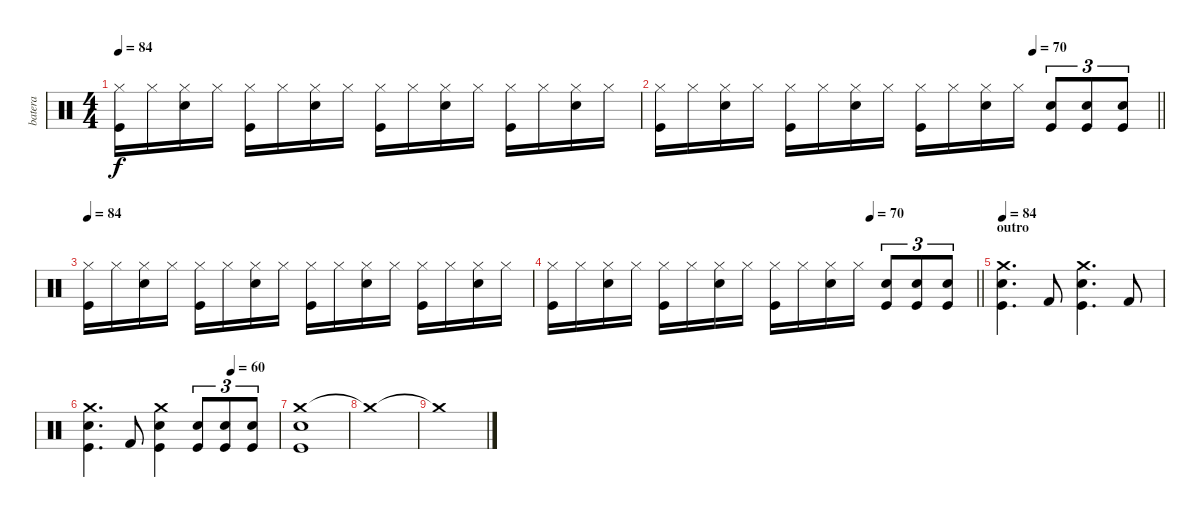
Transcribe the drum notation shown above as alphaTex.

\track ("batera" "batera") {solo instrument percussion}
\staff {score}
\articulation defaults
\ts (4 4)
\tempo 84
\clef neutral
\ks c
("Hi-Hat (closed)" "Kick (hit)").16{dy f} "Hi-Hat (closed)".16 ("Hi-Hat (closed)" "Snare (hit) 2").16 "Hi-Hat (closed)".16 ("Hi-Hat (closed)" "Kick (hit)").16 "Hi-Hat (closed)".16 ("Hi-Hat (closed)" "Snare (hit) 2").16 "Hi-Hat (closed)".16 ("Hi-Hat (closed)" "Kick (hit)").16 "Hi-Hat (closed)".16 ("Hi-Hat (closed)" "Snare (hit) 2").16 "Hi-Hat (closed)".16 ("Hi-Hat (closed)" "Kick (hit)").16 "Hi-Hat (closed)".16 ("Hi-Hat (closed)" "Snare (hit) 2").16 "Hi-Hat (closed)".16 |
\tempo (70 0.75)
\barLineRight lightlight
("Hi-Hat (closed)" "Kick (hit)").16 "Hi-Hat (closed)".16 ("Hi-Hat (closed)" "Snare (hit) 2").16 "Hi-Hat (closed)".16 ("Hi-Hat (closed)" "Kick (hit)").16 "Hi-Hat (closed)".16 ("Hi-Hat (closed)" "Snare (hit) 2").16 "Hi-Hat (closed)".16 ("Hi-Hat (closed)" "Kick (hit)").16 "Hi-Hat (closed)".16 ("Hi-Hat (closed)" "Snare (hit) 2").16 "Hi-Hat (closed)".16 ("Snare (hit) 2" "Kick (hit)").8{tu (3 2)} ("Snare (hit) 2" "Kick (hit)").8{tu (3 2)} ("Snare (hit) 2" "Kick (hit)").8{tu (3 2)} |
\tempo 84
("Hi-Hat (closed)" "Kick (hit)").16 "Hi-Hat (closed)".16 ("Hi-Hat (closed)" "Snare (hit) 2").16 "Hi-Hat (closed)".16 ("Hi-Hat (closed)" "Kick (hit)").16 "Hi-Hat (closed)".16 ("Hi-Hat (closed)" "Snare (hit) 2").16 "Hi-Hat (closed)".16 ("Hi-Hat (closed)" "Kick (hit)").16 "Hi-Hat (closed)".16 ("Hi-Hat (closed)" "Snare (hit) 2").16 "Hi-Hat (closed)".16 ("Hi-Hat (closed)" "Kick (hit)").16 "Hi-Hat (closed)".16 ("Hi-Hat (closed)" "Snare (hit) 2").16 "Hi-Hat (closed)".16 |
\tempo (70 0.75)
\barLineRight lightlight
("Hi-Hat (closed)" "Kick (hit)").16 "Hi-Hat (closed)".16 ("Hi-Hat (closed)" "Snare (hit) 2").16 "Hi-Hat (closed)".16 ("Hi-Hat (closed)" "Kick (hit)").16 "Hi-Hat (closed)".16 ("Hi-Hat (closed)" "Snare (hit) 2").16 "Hi-Hat (closed)".16 ("Hi-Hat (closed)" "Kick (hit)").16 "Hi-Hat (closed)".16 ("Hi-Hat (closed)" "Snare (hit) 2").16 "Hi-Hat (closed)".16 ("Snare (hit) 2" "Kick (hit)").8{tu (3 2)} ("Snare (hit) 2" "Kick (hit)").8{tu (3 2)} ("Snare (hit) 2" "Kick (hit)").8{tu (3 2)} |
\section ("" "outro")
\tempo 84
("Crash medium (hit)" "Snare (hit) 2" "Kick (hit)").4{d} "Kick (hit) 2".8 ("Crash medium (hit)" "Snare (hit) 2" "Kick (hit)").4{d} "Kick (hit) 2".8 |
\tempo (60 0.75)
("Crash medium (hit)" "Snare (hit) 2" "Kick (hit)").4{d} "Kick (hit) 2".8 ("Crash medium (hit)" "Snare (hit) 2" "Kick (hit)").4 ("Snare (hit) 2" "Kick (hit)").8{tu (3 2)} ("Snare (hit) 2" "Kick (hit)").8{tu (3 2)} ("Snare (hit) 2" "Kick (hit)").8{tu (3 2)} |
("Crash medium (hit)" "Snare (hit) 2" "Kick (hit)").1 |
"Crash medium (hit)"{t}.1 |
"Crash medium (hit)"{t}.1
